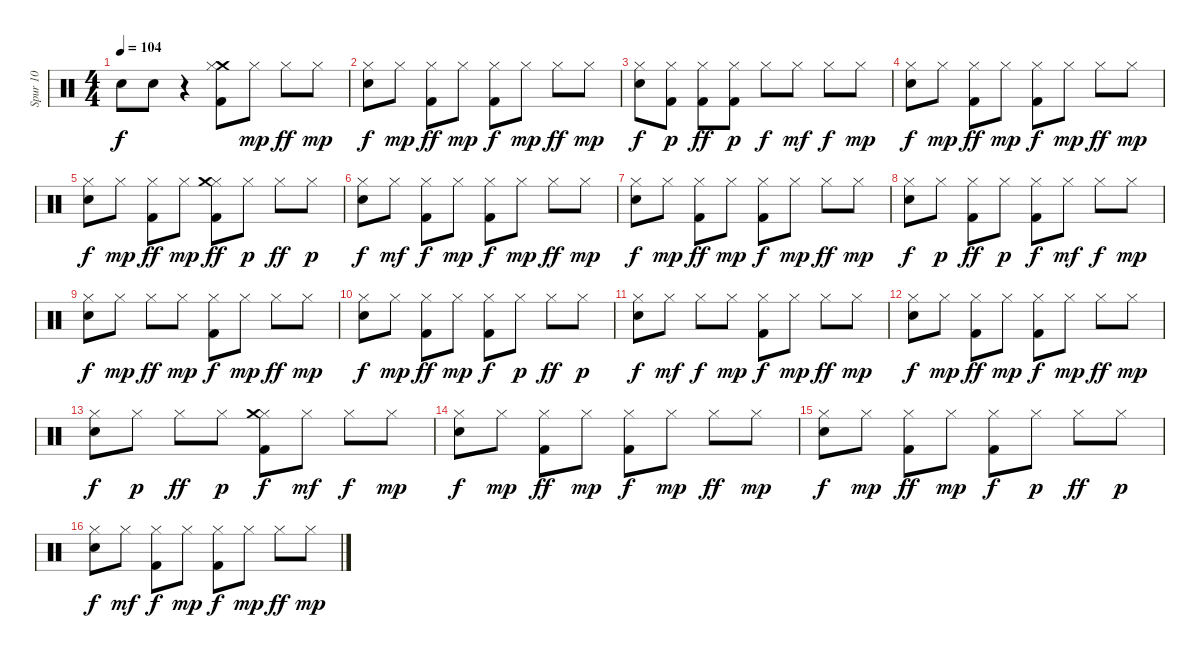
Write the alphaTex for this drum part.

\track ("Spur 10" "Spur 10") {instrument percussion}
\staff {score}
\articulation defaults
\ts (4 4)
\tempo 104
\clef neutral
\ks c "Snare (hit) 2".8{dy f} "Snare (hit) 2".8
r.4 ("Kick (hit) 2" "Crash medium (hit)" "Hi-Hat (closed)").8 "Hi-Hat (closed)".8{dy mp} "Hi-Hat (closed)".8{dy ff} "Hi-Hat (closed)".8{dy mp} |
("Snare (hit) 2" "Hi-Hat (closed)").8{dy f} "Hi-Hat (closed)".8{dy mp} ("Hi-Hat (closed)" "Kick (hit) 2").8{dy ff} "Hi-Hat (closed)".8{dy mp} ("Hi-Hat (closed)" "Kick (hit) 2").8{dy f} "Hi-Hat (closed)".8{dy mp} "Hi-Hat (closed)".8{dy ff} "Hi-Hat (closed)".8{dy mp} |
("Hi-Hat (closed)" "Snare (hit) 2").8{dy f} ("Hi-Hat (closed)" "Kick (hit) 2").8{dy p} ("Hi-Hat (closed)" "Kick (hit) 2").8{dy ff} ("Hi-Hat (closed)" "Kick (hit) 2").8{dy p} "Hi-Hat (closed)".8{dy f} "Hi-Hat (closed)".8{dy mf} "Hi-Hat (closed)".8{dy f} "Hi-Hat (closed)".8{dy mp} |
("Snare (hit) 2" "Hi-Hat (closed)").8{dy f} "Hi-Hat (closed)".8{dy mp} ("Kick (hit) 2" "Hi-Hat (closed)").8{dy ff} "Hi-Hat (closed)".8{dy mp} ("Kick (hit) 2" "Hi-Hat (closed)").8{dy f} "Hi-Hat (closed)".8{dy mp} "Hi-Hat (closed)".8{dy ff} "Hi-Hat (closed)".8{dy mp} |
("Snare (hit) 2" "Hi-Hat (closed)").8{dy f} "Hi-Hat (closed)".8{dy mp} ("Hi-Hat (closed)" "Kick (hit) 2").8{dy ff} "Hi-Hat (closed)".8{dy mp} ("Hi-Hat (closed)" "Kick (hit) 2" "Crash medium (hit)").8{dy ff} "Hi-Hat (closed)".8{dy p} "Hi-Hat (closed)".8{dy ff} "Hi-Hat (closed)".8{dy p} |
("Hi-Hat (closed)" "Snare (hit) 2").8{dy f} "Hi-Hat (closed)".8{dy mf} ("Hi-Hat (closed)" "Kick (hit) 2").8{dy f} "Hi-Hat (closed)".8{dy mp} ("Kick (hit) 2" "Hi-Hat (closed)").8{dy f} "Hi-Hat (closed)".8{dy mp} "Hi-Hat (closed)".8{dy ff} "Hi-Hat (closed)".8{dy mp} |
("Snare (hit) 2" "Hi-Hat (closed)").8{dy f} "Hi-Hat (closed)".8{dy mp} ("Kick (hit) 2" "Hi-Hat (closed)").8{dy ff} "Hi-Hat (closed)".8{dy mp} ("Kick (hit) 2" "Hi-Hat (closed)").8{dy f} "Hi-Hat (closed)".8{dy mp} "Hi-Hat (closed)".8{dy ff} "Hi-Hat (closed)".8{dy mp} |
("Snare (hit) 2" "Hi-Hat (closed)").8{dy f} "Hi-Hat (closed)".8{dy p} ("Kick (hit) 2" "Hi-Hat (closed)").8{dy ff} "Hi-Hat (closed)".8{dy p} ("Kick (hit) 2" "Hi-Hat (closed)").8{dy f} "Hi-Hat (closed)".8{dy mf} "Hi-Hat (closed)".8{dy f} "Hi-Hat (closed)".8{dy mp} |
("Snare (hit) 2" "Hi-Hat (closed)").8{dy f} "Hi-Hat (closed)".8{dy mp} "Hi-Hat (closed)".8{dy ff} "Hi-Hat (closed)".8{dy mp} ("Kick (hit) 2" "Hi-Hat (closed)").8{dy f} "Hi-Hat (closed)".8{dy mp} "Hi-Hat (closed)".8{dy ff} "Hi-Hat (closed)".8{dy mp} |
("Snare (hit) 2" "Hi-Hat (closed)").8{dy f} "Hi-Hat (closed)".8{dy mp} ("Kick (hit) 2" "Hi-Hat (closed)").8{dy ff} "Hi-Hat (closed)".8{dy mp} ("Kick (hit) 2" "Hi-Hat (closed)").8{dy f} "Hi-Hat (closed)".8{dy p} "Hi-Hat (closed)".8{dy ff} "Hi-Hat (closed)".8{dy p} |
("Snare (hit) 2" "Hi-Hat (closed)").8{dy f} "Hi-Hat (closed)".8{dy mf} "Hi-Hat (closed)".8{dy f} "Hi-Hat (closed)".8{dy mp} ("Kick (hit) 2" "Hi-Hat (closed)").8{dy f} "Hi-Hat (closed)".8{dy mp} "Hi-Hat (closed)".8{dy ff} "Hi-Hat (closed)".8{dy mp} |
("Snare (hit) 2" "Hi-Hat (closed)").8{dy f} "Hi-Hat (closed)".8{dy mp} ("Kick (hit) 2" "Hi-Hat (closed)").8{dy ff} "Hi-Hat (closed)".8{dy mp} ("Kick (hit) 2" "Hi-Hat (closed)").8{dy f} "Hi-Hat (closed)".8{dy mp} "Hi-Hat (closed)".8{dy ff} "Hi-Hat (closed)".8{dy mp} |
("Snare (hit) 2" "Hi-Hat (closed)").8{dy f} "Hi-Hat (closed)".8{dy p} "Hi-Hat (closed)".8{dy ff} "Hi-Hat (closed)".8{dy p} ("Kick (hit) 2" "Hi-Hat (closed)" "Crash medium (hit)").8{dy f} "Hi-Hat (closed)".8{dy mf} "Hi-Hat (closed)".8{dy f} "Hi-Hat (closed)".8{dy mp} |
("Snare (hit) 2" "Hi-Hat (closed)").8{dy f} "Hi-Hat (closed)".8{dy mp} ("Hi-Hat (closed)" "Kick (hit) 2").8{dy ff} "Hi-Hat (closed)".8{dy mp} ("Hi-Hat (closed)" "Kick (hit) 2").8{dy f} "Hi-Hat (closed)".8{dy mp} "Hi-Hat (closed)".8{dy ff} "Hi-Hat (closed)".8{dy mp} |
("Hi-Hat (closed)" "Snare (hit) 2").8{dy f} "Hi-Hat (closed)".8{dy mp} ("Hi-Hat (closed)" "Kick (hit) 2").8{dy ff} "Hi-Hat (closed)".8{dy mp} ("Hi-Hat (closed)" "Kick (hit) 2").8{dy f} "Hi-Hat (closed)".8{dy p} "Hi-Hat (closed)".8{dy ff} "Hi-Hat (closed)".8{dy p} |
("Hi-Hat (closed)" "Snare (hit) 2").8{dy f} "Hi-Hat (closed)".8{dy mf} ("Hi-Hat (closed)" "Kick (hit) 2").8{dy f} "Hi-Hat (closed)".8{dy mp} ("Kick (hit) 2" "Hi-Hat (closed)").8{dy f} "Hi-Hat (closed)".8{dy mp} "Hi-Hat (closed)".8{dy ff} "Hi-Hat (closed)".8{dy mp}
